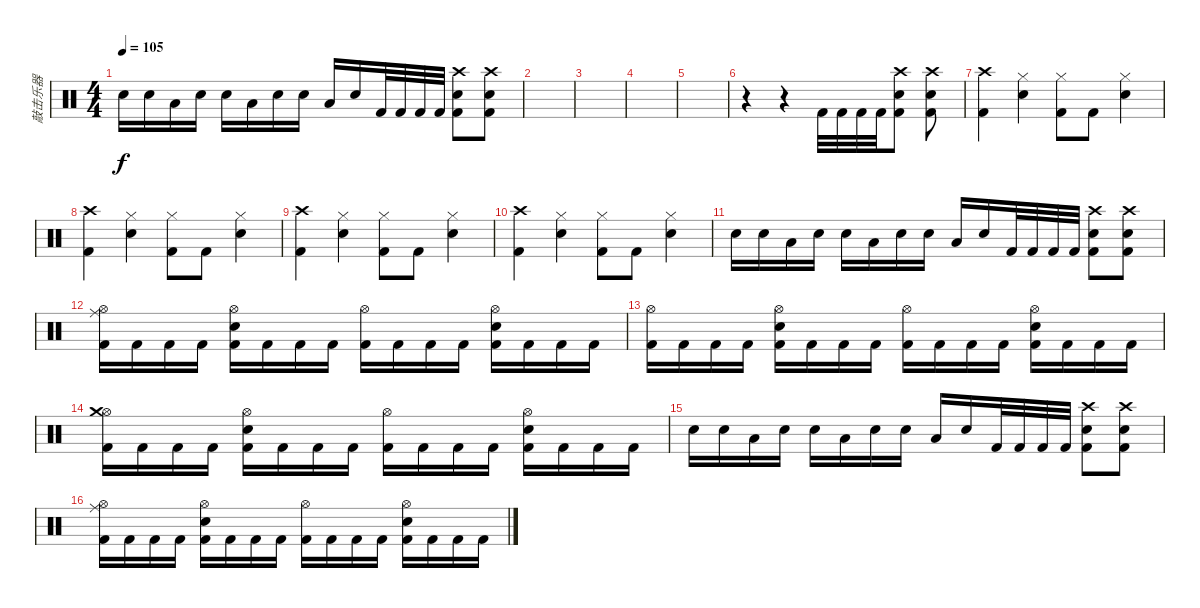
\track ("敲击乐器" "敲击乐器") {instrument percussion}
\staff {score}
\articulation defaults
\ts (4 4)
\tempo 105
\clef neutral
\ks c "Electric Snare (hit)".16{dy f} "Electric Snare (hit)".16 "Low Tom (hit)".16 "Electric Snare (hit)".16 "Electric Snare (hit)".16 "Low Tom (hit)".16 "Electric Snare (hit)".16 "Electric Snare (hit)".16 "Low Tom (hit)".16 "Electric Snare (hit)".16 "Kick (hit) 2".32 "Kick (hit) 2".32 "Kick (hit) 2".32 "Kick (hit) 2".32
("Kick (hit) 2" "Electric Snare (hit)" "Crash high (hit)").8 ("Kick (hit) 2" "Electric Snare (hit)" "Crash high (hit)").8 |
|
|
|
|
r.4 r.4 "Kick (hit) 2".32 "Kick (hit) 2".32 "Kick (hit) 2".32 "Kick (hit) 2".32 ("Kick (hit) 2" "Electric Snare (hit)" "Crash high (hit)").8 ("Kick (hit) 2" "Electric Snare (hit)" "Crash high (hit)").8 |
("Crash high (hit)" "Kick (hit) 2").4 ("Hi-Hat (closed)" "Snare (hit) 2").4 ("Hi-Hat (closed)" "Kick (hit) 2").8 "Kick (hit) 2".8 ("Hi-Hat (closed)" "Snare (hit) 2").4 |
("Crash high (hit)" "Kick (hit) 2").4 ("Hi-Hat (closed)" "Snare (hit) 2").4 ("Hi-Hat (closed)" "Kick (hit) 2").8 "Kick (hit) 2".8 ("Hi-Hat (closed)" "Snare (hit) 2").4 |
("Crash high (hit)" "Kick (hit) 2").4 ("Hi-Hat (closed)" "Snare (hit) 2").4 ("Hi-Hat (closed)" "Kick (hit) 2").8 "Kick (hit) 2".8 ("Hi-Hat (closed)" "Snare (hit) 2").4 |
("Crash high (hit)" "Kick (hit) 2").4 ("Hi-Hat (closed)" "Snare (hit) 2").4 ("Hi-Hat (closed)" "Kick (hit) 2").8 "Kick (hit) 2".8 ("Hi-Hat (closed)" "Snare (hit) 2").4 |
"Electric Snare (hit)".16 "Electric Snare (hit)".16 "Low Tom (hit)".16 "Electric Snare (hit)".16 "Electric Snare (hit)".16 "Low Tom (hit)".16 "Electric Snare (hit)".16 "Electric Snare (hit)".16 "Low Tom (hit)".16 "Electric Snare (hit)".16 "Kick (hit) 2".32 "Kick (hit) 2".32 "Kick (hit) 2".32 "Kick (hit) 2".32 ("Kick (hit) 2" "Electric Snare (hit)" "Crash high (hit)").8 ("Kick (hit) 2" "Electric Snare (hit)" "Crash high (hit)").8 |
("Kick (hit) 2" "Hi-Hat (open)" "Ride (middle)").16 "Kick (hit) 2".16 "Kick (hit) 2".16 "Kick (hit) 2".16 ("Kick (hit) 2" "Electric Snare (hit)" "Hi-Hat (open)").16 "Kick (hit) 2".16 "Kick (hit) 2".16 "Kick (hit) 2".16 ("Kick (hit) 2" "Hi-Hat (open)").16 "Kick (hit) 2".16 "Kick (hit) 2".16 "Kick (hit) 2".16 ("Kick (hit) 2" "Electric Snare (hit)" "Hi-Hat (open)").16 "Kick (hit) 2".16 "Kick (hit) 2".16 "Kick (hit) 2".16 |
("Kick (hit) 2" "Hi-Hat (open)").16 "Kick (hit) 2".16 "Kick (hit) 2".16 "Kick (hit) 2".16 ("Kick (hit) 2" "Electric Snare (hit)" "Hi-Hat (open)").16 "Kick (hit) 2".16 "Kick (hit) 2".16 "Kick (hit) 2".16 ("Kick (hit) 2" "Hi-Hat (open)").16 "Kick (hit) 2".16 "Kick (hit) 2".16 "Kick (hit) 2".16 ("Kick (hit) 2" "Electric Snare (hit)" "Hi-Hat (open)").16 "Kick (hit) 2".16 "Kick (hit) 2".16 "Kick (hit) 2".16 |
("Kick (hit) 2" "Hi-Hat (open)" "Crash medium (hit)").16 "Kick (hit) 2".16 "Kick (hit) 2".16 "Kick (hit) 2".16 ("Kick (hit) 2" "Electric Snare (hit)" "Hi-Hat (open)").16 "Kick (hit) 2".16 "Kick (hit) 2".16 "Kick (hit) 2".16 ("Kick (hit) 2" "Hi-Hat (open)").16 "Kick (hit) 2".16 "Kick (hit) 2".16 "Kick (hit) 2".16 ("Kick (hit) 2" "Electric Snare (hit)" "Hi-Hat (open)").16 "Kick (hit) 2".16 "Kick (hit) 2".16 "Kick (hit) 2".16 |
"Electric Snare (hit)".16 "Electric Snare (hit)".16 "Low Tom (hit)".16 "Electric Snare (hit)".16 "Electric Snare (hit)".16 "Low Tom (hit)".16 "Electric Snare (hit)".16 "Electric Snare (hit)".16 "Low Tom (hit)".16 "Electric Snare (hit)".16 "Kick (hit) 2".32 "Kick (hit) 2".32 "Kick (hit) 2".32 "Kick (hit) 2".32 ("Kick (hit) 2" "Electric Snare (hit)" "Crash high (hit)").8 ("Kick (hit) 2" "Electric Snare (hit)" "Crash high (hit)").8 |
("Kick (hit) 2" "Hi-Hat (open)" "Ride (middle)").16 "Kick (hit) 2".16 "Kick (hit) 2".16 "Kick (hit) 2".16 ("Kick (hit) 2" "Electric Snare (hit)" "Hi-Hat (open)").16 "Kick (hit) 2".16 "Kick (hit) 2".16 "Kick (hit) 2".16 ("Kick (hit) 2" "Hi-Hat (open)").16 "Kick (hit) 2".16 "Kick (hit) 2".16 "Kick (hit) 2".16 ("Kick (hit) 2" "Electric Snare (hit)" "Hi-Hat (open)").16 "Kick (hit) 2".16 "Kick (hit) 2".16 "Kick (hit) 2".16
